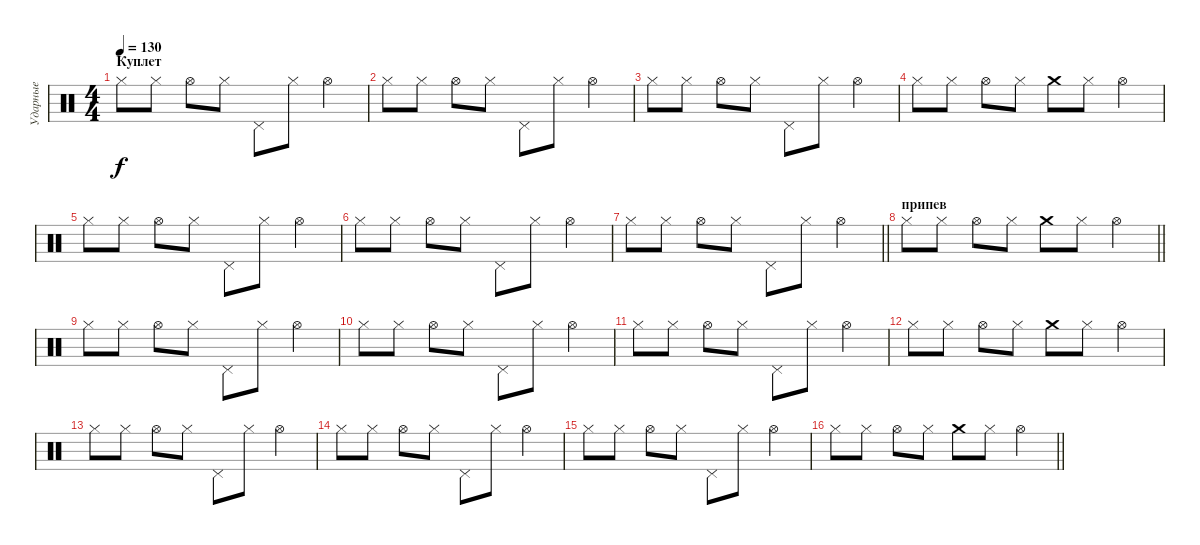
\track ("Ударные" "Ударные") {instrument percussion}
\staff {score}
\articulation defaults
\ts (4 4)
\section ("" "Куплет")
\tempo 130
\clef neutral
\ks c "Hi-Hat (closed)".8{dy f} "Hi-Hat (closed)".8 "Hi-Hat (open)".8 "Hi-Hat (closed)".8 "Pedal Hi-Hat (hit)".8 "Hi-Hat (closed)".8 "Hi-Hat (open)".4
|
"Hi-Hat (closed)".8 "Hi-Hat (closed)".8 "Hi-Hat (open)".8 "Hi-Hat (closed)".8 "Pedal Hi-Hat (hit)".8 "Hi-Hat (closed)".8 "Hi-Hat (open)".4 |
"Hi-Hat (closed)".8 "Hi-Hat (closed)".8 "Hi-Hat (open)".8 "Hi-Hat (closed)".8 "Pedal Hi-Hat (hit)".8 "Hi-Hat (closed)".8 "Hi-Hat (open)".4 |
"Hi-Hat (closed)".8 "Hi-Hat (closed)".8 "Hi-Hat (open)".8 "Hi-Hat (closed)".8 "Crash medium (hit)".8 "Hi-Hat (closed)".8 "Hi-Hat (open)".4 |
"Hi-Hat (closed)".8 "Hi-Hat (closed)".8 "Hi-Hat (open)".8 "Hi-Hat (closed)".8 "Pedal Hi-Hat (hit)".8 "Hi-Hat (closed)".8 "Hi-Hat (open)".4 |
"Hi-Hat (closed)".8 "Hi-Hat (closed)".8 "Hi-Hat (open)".8 "Hi-Hat (closed)".8 "Pedal Hi-Hat (hit)".8 "Hi-Hat (closed)".8 "Hi-Hat (open)".4 |
\barLineRight lightlight "Hi-Hat (closed)".8 "Hi-Hat (closed)".8 "Hi-Hat (open)".8 "Hi-Hat (closed)".8 "Pedal Hi-Hat (hit)".8 "Hi-Hat (closed)".8 "Hi-Hat (open)".4
|
\section ("" "припев")
\barLineRight lightlight "Hi-Hat (closed)".8 "Hi-Hat (closed)".8 "Hi-Hat (open)".8 "Hi-Hat (closed)".8 "Crash medium (hit)".8 "Hi-Hat (closed)".8 "Hi-Hat (open)".4
|
"Hi-Hat (closed)".8 "Hi-Hat (closed)".8 "Hi-Hat (open)".8 "Hi-Hat (closed)".8 "Pedal Hi-Hat (hit)".8 "Hi-Hat (closed)".8 "Hi-Hat (open)".4 |
"Hi-Hat (closed)".8 "Hi-Hat (closed)".8 "Hi-Hat (open)".8 "Hi-Hat (closed)".8 "Pedal Hi-Hat (hit)".8 "Hi-Hat (closed)".8 "Hi-Hat (open)".4 |
"Hi-Hat (closed)".8 "Hi-Hat (closed)".8 "Hi-Hat (open)".8 "Hi-Hat (closed)".8 "Pedal Hi-Hat (hit)".8 "Hi-Hat (closed)".8 "Hi-Hat (open)".4 |
"Hi-Hat (closed)".8 "Hi-Hat (closed)".8 "Hi-Hat (open)".8 "Hi-Hat (closed)".8 "Crash medium (hit)".8 "Hi-Hat (closed)".8 "Hi-Hat (open)".4 |
"Hi-Hat (closed)".8 "Hi-Hat (closed)".8 "Hi-Hat (open)".8 "Hi-Hat (closed)".8 "Pedal Hi-Hat (hit)".8 "Hi-Hat (closed)".8 "Hi-Hat (open)".4 |
"Hi-Hat (closed)".8 "Hi-Hat (closed)".8 "Hi-Hat (open)".8 "Hi-Hat (closed)".8 "Pedal Hi-Hat (hit)".8 "Hi-Hat (closed)".8 "Hi-Hat (open)".4 |
"Hi-Hat (closed)".8 "Hi-Hat (closed)".8 "Hi-Hat (open)".8 "Hi-Hat (closed)".8 "Pedal Hi-Hat (hit)".8 "Hi-Hat (closed)".8 "Hi-Hat (open)".4 |
\barLineRight lightlight "Hi-Hat (closed)".8 "Hi-Hat (closed)".8 "Hi-Hat (open)".8 "Hi-Hat (closed)".8 "Crash medium (hit)".8 "Hi-Hat (closed)".8 "Hi-Hat (open)".4
